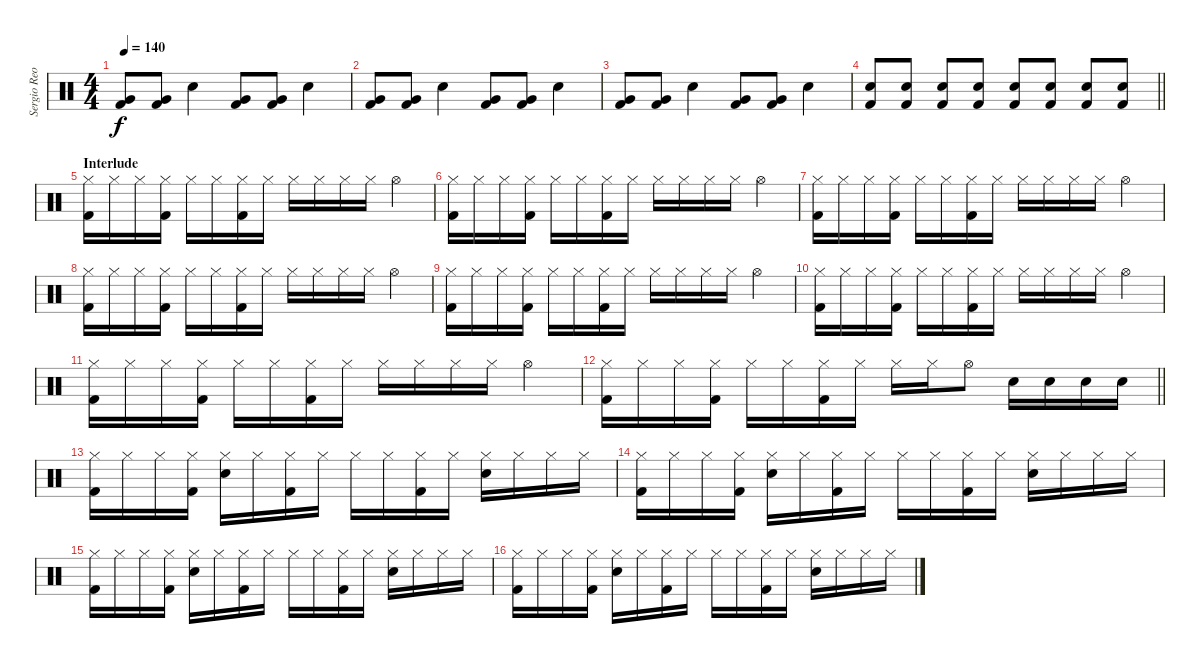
\track ("Sergio Reoli" "Sergio Reo") {instrument percussion}
\staff {score}
\articulation defaults
\ts (4 4)
\tempo 140
\clef neutral
\ks c
("Very Low Tom (hit)" "Kick (hit) 2").8{dy f} ("Very Low Tom (hit)" "Kick (hit) 2").8 "Electric Snare (hit)".4 ("Very Low Tom (hit)" "Kick (hit) 2").8 ("Very Low Tom (hit)" "Kick (hit) 2").8 "Electric Snare (hit)".4 |
("Very Low Tom (hit)" "Kick (hit) 2").8 ("Very Low Tom (hit)" "Kick (hit) 2").8 "Electric Snare (hit)".4 ("Very Low Tom (hit)" "Kick (hit) 2").8 ("Very Low Tom (hit)" "Kick (hit) 2").8 "Electric Snare (hit)".4 |
("Very Low Tom (hit)" "Kick (hit) 2").8 ("Very Low Tom (hit)" "Kick (hit) 2").8 "Electric Snare (hit)".4 ("Very Low Tom (hit)" "Kick (hit) 2").8 ("Very Low Tom (hit)" "Kick (hit) 2").8 "Electric Snare (hit)".4 |
\barLineRight lightlight
("Electric Snare (hit)" "Kick (hit) 2").8 ("Electric Snare (hit)" "Kick (hit) 2").8 ("Electric Snare (hit)" "Kick (hit) 2").8 ("Electric Snare (hit)" "Kick (hit) 2").8 ("Electric Snare (hit)" "Kick (hit) 2").8 ("Electric Snare (hit)" "Kick (hit) 2").8 ("Electric Snare (hit)" "Kick (hit) 2").8 ("Electric Snare (hit)" "Kick (hit) 2").8 |
\section ("" "Interlude")
("Hi-Hat (closed)" "Kick (hit) 2").16 "Hi-Hat (closed)".16 "Hi-Hat (closed)".16 ("Hi-Hat (closed)" "Kick (hit) 2").16 "Hi-Hat (closed)".16 "Hi-Hat (closed)".16 ("Hi-Hat (closed)" "Kick (hit) 2").16 "Hi-Hat (closed)".16 "Hi-Hat (closed)".16 "Hi-Hat (closed)".16 "Hi-Hat (closed)".16 "Hi-Hat (closed)".16 "Hi-Hat (open)".4 |
("Hi-Hat (closed)" "Kick (hit) 2").16 "Hi-Hat (closed)".16 "Hi-Hat (closed)".16 ("Hi-Hat (closed)" "Kick (hit) 2").16 "Hi-Hat (closed)".16 "Hi-Hat (closed)".16 ("Hi-Hat (closed)" "Kick (hit) 2").16 "Hi-Hat (closed)".16 "Hi-Hat (closed)".16 "Hi-Hat (closed)".16 "Hi-Hat (closed)".16 "Hi-Hat (closed)".16 "Hi-Hat (open)".4 |
("Hi-Hat (closed)" "Kick (hit) 2").16 "Hi-Hat (closed)".16 "Hi-Hat (closed)".16 ("Hi-Hat (closed)" "Kick (hit) 2").16 "Hi-Hat (closed)".16 "Hi-Hat (closed)".16 ("Hi-Hat (closed)" "Kick (hit) 2").16 "Hi-Hat (closed)".16 "Hi-Hat (closed)".16 "Hi-Hat (closed)".16 "Hi-Hat (closed)".16 "Hi-Hat (closed)".16 "Hi-Hat (open)".4 |
("Hi-Hat (closed)" "Kick (hit) 2").16 "Hi-Hat (closed)".16 "Hi-Hat (closed)".16 ("Hi-Hat (closed)" "Kick (hit) 2").16 "Hi-Hat (closed)".16 "Hi-Hat (closed)".16 ("Hi-Hat (closed)" "Kick (hit) 2").16 "Hi-Hat (closed)".16 "Hi-Hat (closed)".16 "Hi-Hat (closed)".16 "Hi-Hat (closed)".16 "Hi-Hat (closed)".16 "Hi-Hat (open)".4 |
("Hi-Hat (closed)" "Kick (hit) 2").16 "Hi-Hat (closed)".16 "Hi-Hat (closed)".16 ("Hi-Hat (closed)" "Kick (hit) 2").16 "Hi-Hat (closed)".16 "Hi-Hat (closed)".16 ("Hi-Hat (closed)" "Kick (hit) 2").16 "Hi-Hat (closed)".16 "Hi-Hat (closed)".16 "Hi-Hat (closed)".16 "Hi-Hat (closed)".16 "Hi-Hat (closed)".16 "Hi-Hat (open)".4 |
("Hi-Hat (closed)" "Kick (hit) 2").16 "Hi-Hat (closed)".16 "Hi-Hat (closed)".16 ("Hi-Hat (closed)" "Kick (hit) 2").16 "Hi-Hat (closed)".16 "Hi-Hat (closed)".16 ("Hi-Hat (closed)" "Kick (hit) 2").16 "Hi-Hat (closed)".16 "Hi-Hat (closed)".16 "Hi-Hat (closed)".16 "Hi-Hat (closed)".16 "Hi-Hat (closed)".16 "Hi-Hat (open)".4 |
("Hi-Hat (closed)" "Kick (hit) 2").16 "Hi-Hat (closed)".16 "Hi-Hat (closed)".16 ("Hi-Hat (closed)" "Kick (hit) 2").16 "Hi-Hat (closed)".16 "Hi-Hat (closed)".16 ("Hi-Hat (closed)" "Kick (hit) 2").16 "Hi-Hat (closed)".16 "Hi-Hat (closed)".16 "Hi-Hat (closed)".16 "Hi-Hat (closed)".16 "Hi-Hat (closed)".16 "Hi-Hat (open)".4 |
\barLineRight lightlight
("Hi-Hat (closed)" "Kick (hit) 2").16 "Hi-Hat (closed)".16 "Hi-Hat (closed)".16 ("Hi-Hat (closed)" "Kick (hit) 2").16 "Hi-Hat (closed)".16 "Hi-Hat (closed)".16 ("Hi-Hat (closed)" "Kick (hit) 2").16 "Hi-Hat (closed)".16 "Hi-Hat (closed)".16 "Hi-Hat (closed)".16 "Hi-Hat (open)".8 "Electric Snare (hit)".16 "Electric Snare (hit)".16 "Electric Snare (hit)".16 "Electric Snare (hit)".16 |
("Hi-Hat (closed)" "Kick (hit) 2").16 "Hi-Hat (closed)".16 "Hi-Hat (closed)".16 ("Hi-Hat (closed)" "Kick (hit) 2").16 ("Hi-Hat (closed)" "Electric Snare (hit)").16 "Hi-Hat (closed)".16 ("Hi-Hat (closed)" "Kick (hit) 2").16 "Hi-Hat (closed)".16 "Hi-Hat (closed)".16 "Hi-Hat (closed)".16 ("Hi-Hat (closed)" "Kick (hit) 2").16 "Hi-Hat (closed)".16 ("Hi-Hat (closed)" "Electric Snare (hit)").16 "Hi-Hat (closed)".16 "Hi-Hat (closed)".16 "Hi-Hat (closed)".16 |
("Hi-Hat (closed)" "Kick (hit) 2").16 "Hi-Hat (closed)".16 "Hi-Hat (closed)".16 ("Hi-Hat (closed)" "Kick (hit) 2").16 ("Hi-Hat (closed)" "Electric Snare (hit)").16 "Hi-Hat (closed)".16 ("Hi-Hat (closed)" "Kick (hit) 2").16 "Hi-Hat (closed)".16 "Hi-Hat (closed)".16 "Hi-Hat (closed)".16 ("Hi-Hat (closed)" "Kick (hit) 2").16 "Hi-Hat (closed)".16 ("Hi-Hat (closed)" "Electric Snare (hit)").16 "Hi-Hat (closed)".16 "Hi-Hat (closed)".16 "Hi-Hat (closed)".16 |
("Hi-Hat (closed)" "Kick (hit) 2").16 "Hi-Hat (closed)".16 "Hi-Hat (closed)".16 ("Hi-Hat (closed)" "Kick (hit) 2").16 ("Hi-Hat (closed)" "Electric Snare (hit)").16 "Hi-Hat (closed)".16 ("Hi-Hat (closed)" "Kick (hit) 2").16 "Hi-Hat (closed)".16 "Hi-Hat (closed)".16 "Hi-Hat (closed)".16 ("Hi-Hat (closed)" "Kick (hit) 2").16 "Hi-Hat (closed)".16 ("Hi-Hat (closed)" "Electric Snare (hit)").16 "Hi-Hat (closed)".16 "Hi-Hat (closed)".16 "Hi-Hat (closed)".16 |
("Hi-Hat (closed)" "Kick (hit) 2").16 "Hi-Hat (closed)".16 "Hi-Hat (closed)".16 ("Hi-Hat (closed)" "Kick (hit) 2").16 ("Hi-Hat (closed)" "Electric Snare (hit)").16 "Hi-Hat (closed)".16 ("Hi-Hat (closed)" "Kick (hit) 2").16 "Hi-Hat (closed)".16 "Hi-Hat (closed)".16 "Hi-Hat (closed)".16 ("Hi-Hat (closed)" "Kick (hit) 2").16 "Hi-Hat (closed)".16 ("Hi-Hat (closed)" "Electric Snare (hit)").16 "Hi-Hat (closed)".16 "Hi-Hat (closed)".16 "Hi-Hat (closed)".16
